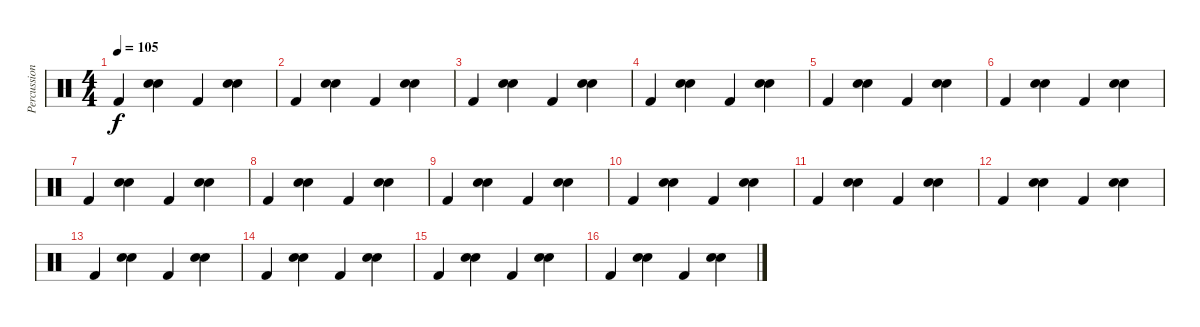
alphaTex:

\track ("Percussion" "Percussion") {instrument percussion}
\staff {score}
\articulation defaults
\ts (4 4)
\tempo 105
\clef neutral
\ks c "Kick (hit) 2".4{dy f}
("Snare (hit) 2" "Hand Clap (hit)").4 "Kick (hit) 2".4 ("Snare (hit) 2" "Hand Clap (hit)").4 |
"Kick (hit) 2".4 ("Snare (hit) 2" "Hand Clap (hit)").4 "Kick (hit) 2".4 ("Snare (hit) 2" "Hand Clap (hit)").4 |
"Kick (hit) 2".4 ("Snare (hit) 2" "Hand Clap (hit)").4 "Kick (hit) 2".4 ("Snare (hit) 2" "Hand Clap (hit)").4 |
"Kick (hit) 2".4 ("Snare (hit) 2" "Hand Clap (hit)").4 "Kick (hit) 2".4 ("Snare (hit) 2" "Hand Clap (hit)").4 |
"Kick (hit) 2".4 ("Snare (hit) 2" "Hand Clap (hit)").4 "Kick (hit) 2".4 ("Snare (hit) 2" "Hand Clap (hit)").4 |
"Kick (hit) 2".4 ("Snare (hit) 2" "Hand Clap (hit)").4 "Kick (hit) 2".4 ("Snare (hit) 2" "Hand Clap (hit)").4 |
"Kick (hit) 2".4 ("Snare (hit) 2" "Hand Clap (hit)").4 "Kick (hit) 2".4 ("Snare (hit) 2" "Hand Clap (hit)").4 |
"Kick (hit) 2".4 ("Snare (hit) 2" "Hand Clap (hit)").4 "Kick (hit) 2".4 ("Snare (hit) 2" "Hand Clap (hit)").4 |
"Kick (hit) 2".4 ("Snare (hit) 2" "Hand Clap (hit)").4 "Kick (hit) 2".4 ("Snare (hit) 2" "Hand Clap (hit)").4 |
"Kick (hit) 2".4 ("Snare (hit) 2" "Hand Clap (hit)").4 "Kick (hit) 2".4 ("Snare (hit) 2" "Hand Clap (hit)").4 |
"Kick (hit) 2".4 ("Snare (hit) 2" "Hand Clap (hit)").4 "Kick (hit) 2".4 ("Snare (hit) 2" "Hand Clap (hit)").4 |
"Kick (hit) 2".4 ("Snare (hit) 2" "Hand Clap (hit)").4 "Kick (hit) 2".4 ("Snare (hit) 2" "Hand Clap (hit)").4 |
"Kick (hit) 2".4 ("Snare (hit) 2" "Hand Clap (hit)").4 "Kick (hit) 2".4 ("Snare (hit) 2" "Hand Clap (hit)").4 |
"Kick (hit) 2".4 ("Snare (hit) 2" "Hand Clap (hit)").4 "Kick (hit) 2".4 ("Snare (hit) 2" "Hand Clap (hit)").4 |
"Kick (hit) 2".4 ("Snare (hit) 2" "Hand Clap (hit)").4 "Kick (hit) 2".4 ("Snare (hit) 2" "Hand Clap (hit)").4 |
"Kick (hit) 2".4 ("Snare (hit) 2" "Hand Clap (hit)").4 "Kick (hit) 2".4 ("Snare (hit) 2" "Hand Clap (hit)").4
